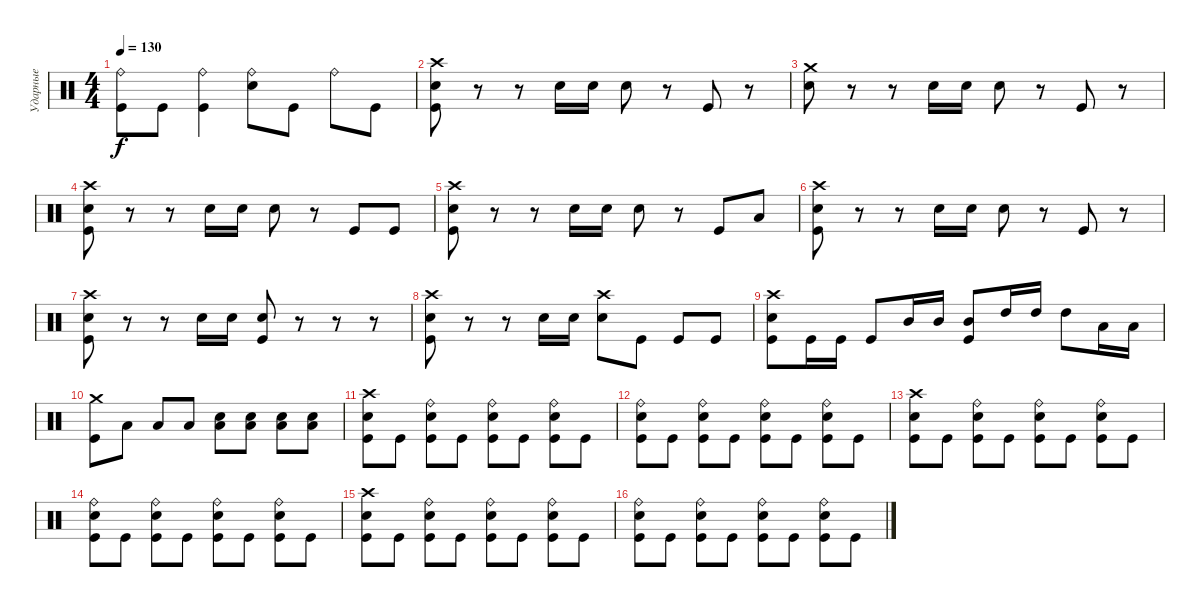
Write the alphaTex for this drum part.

\track ("Ударные" "Ударные") {instrument percussion}
\staff {score}
\articulation defaults
\ts (4 4)
\tempo 130
\clef neutral
\ks c
("Ride (bell)" "Kick (hit)").8{dy f} "Kick (hit)".8 ("Ride (bell)" "Kick (hit)").4 ("Ride (bell)" "Electric Snare (hit)").8 "Kick (hit)".8 "Ride (bell)".8 "Kick (hit)".8 |
("Crash high (hit)" "Electric Snare (hit)" "Kick (hit)").8 r.8 r.8 "Electric Snare (hit)".16 "Electric Snare (hit)".16 "Electric Snare (hit)".8 r.8 "Kick (hit)".8 r.8 |
("Crash medium (hit)" "Electric Snare (hit)").8 r.8 r.8 "Electric Snare (hit)".16 "Electric Snare (hit)".16 "Electric Snare (hit)".8 r.8 "Kick (hit)".8 r.8 |
("Crash high (hit)" "Electric Snare (hit)" "Kick (hit)").8 r.8 r.8 "Electric Snare (hit)".16 "Electric Snare (hit)".16 "Electric Snare (hit)".8 r.8 "Kick (hit)".8 "Kick (hit)".8 |
("Crash high (hit)" "Electric Snare (hit)" "Kick (hit)").8 r.8 r.8 "Electric Snare (hit)".16 "Electric Snare (hit)".16 "Electric Snare (hit)".8 r.8 "Kick (hit)".8 "Low Tom (hit)".8 |
("Crash high (hit)" "Electric Snare (hit)" "Kick (hit)").8 r.8 r.8 "Electric Snare (hit)".16 "Electric Snare (hit)".16 "Electric Snare (hit)".8 r.8 "Kick (hit)".8 r.8 |
("Crash high (hit)" "Electric Snare (hit)" "Kick (hit)").8 r.8 r.8 "Electric Snare (hit)".16 "Electric Snare (hit)".16 ("Electric Snare (hit)" "Kick (hit)").8 r.8 r.8 r.8 |
("Crash high (hit)" "Electric Snare (hit)" "Kick (hit)").8 r.8 r.8 "Electric Snare (hit)".16 "Electric Snare (hit)".16 ("Crash high (hit)" "Electric Snare (hit)").8 "Kick (hit)".8 "Kick (hit)".8 "Kick (hit)".8 |
("Crash high (hit)" "Electric Snare (hit)" "Kick (hit)").8 "Kick (hit)".16 "Kick (hit)".16 "Kick (hit)".8 "Mid Tom (hit)".16 "Mid Tom (hit)".16 ("Mid Tom (hit)" "Kick (hit)").8 "High Tom (hit)".16 "High Tom (hit)".16 "High Tom (hit)".8 "Low Tom (hit)".16 "Low Tom (hit)".16 |
("Crash medium (hit)" "Kick (hit)").8 "Low Tom (hit)".8 "Low Tom (hit)".8 "Low Tom (hit)".8 ("Low Tom (hit)" "Electric Snare (hit)").8 ("Low Tom (hit)" "Electric Snare (hit)").8 ("Low Tom (hit)" "Electric Snare (hit)").8 ("Low Tom (hit)" "Electric Snare (hit)").8 |
("Crash high (hit)" "Electric Snare (hit)" "Kick (hit)").8 "Kick (hit)".8 ("Ride (bell)" "Electric Snare (hit)" "Kick (hit)").8 "Kick (hit)".8 ("Ride (bell)" "Electric Snare (hit)" "Kick (hit)").8 "Kick (hit)".8 ("Ride (bell)" "Electric Snare (hit)" "Kick (hit)").8 "Kick (hit)".8 |
("Ride (bell)" "Electric Snare (hit)" "Kick (hit)").8 "Kick (hit)".8 ("Ride (bell)" "Electric Snare (hit)" "Kick (hit)").8 "Kick (hit)".8 ("Ride (bell)" "Electric Snare (hit)" "Kick (hit)").8 "Kick (hit)".8 ("Ride (bell)" "Electric Snare (hit)" "Kick (hit)").8 "Kick (hit)".8 |
("Crash high (hit)" "Electric Snare (hit)" "Kick (hit)").8 "Kick (hit)".8 ("Ride (bell)" "Electric Snare (hit)" "Kick (hit)").8 "Kick (hit)".8 ("Ride (bell)" "Electric Snare (hit)" "Kick (hit)").8 "Kick (hit)".8 ("Ride (bell)" "Electric Snare (hit)" "Kick (hit)").8 "Kick (hit)".8 |
("Ride (bell)" "Electric Snare (hit)" "Kick (hit)").8 "Kick (hit)".8 ("Ride (bell)" "Electric Snare (hit)" "Kick (hit)").8 "Kick (hit)".8 ("Ride (bell)" "Electric Snare (hit)" "Kick (hit)").8 "Kick (hit)".8 ("Ride (bell)" "Electric Snare (hit)" "Kick (hit)").8 "Kick (hit)".8 |
("Crash high (hit)" "Electric Snare (hit)" "Kick (hit)").8 "Kick (hit)".8 ("Ride (bell)" "Electric Snare (hit)" "Kick (hit)").8 "Kick (hit)".8 ("Ride (bell)" "Electric Snare (hit)" "Kick (hit)").8 "Kick (hit)".8 ("Ride (bell)" "Electric Snare (hit)" "Kick (hit)").8 "Kick (hit)".8 |
("Ride (bell)" "Electric Snare (hit)" "Kick (hit)").8 "Kick (hit)".8 ("Ride (bell)" "Electric Snare (hit)" "Kick (hit)").8 "Kick (hit)".8 ("Ride (bell)" "Electric Snare (hit)" "Kick (hit)").8 "Kick (hit)".8 ("Ride (bell)" "Electric Snare (hit)" "Kick (hit)").8 "Kick (hit)".8
